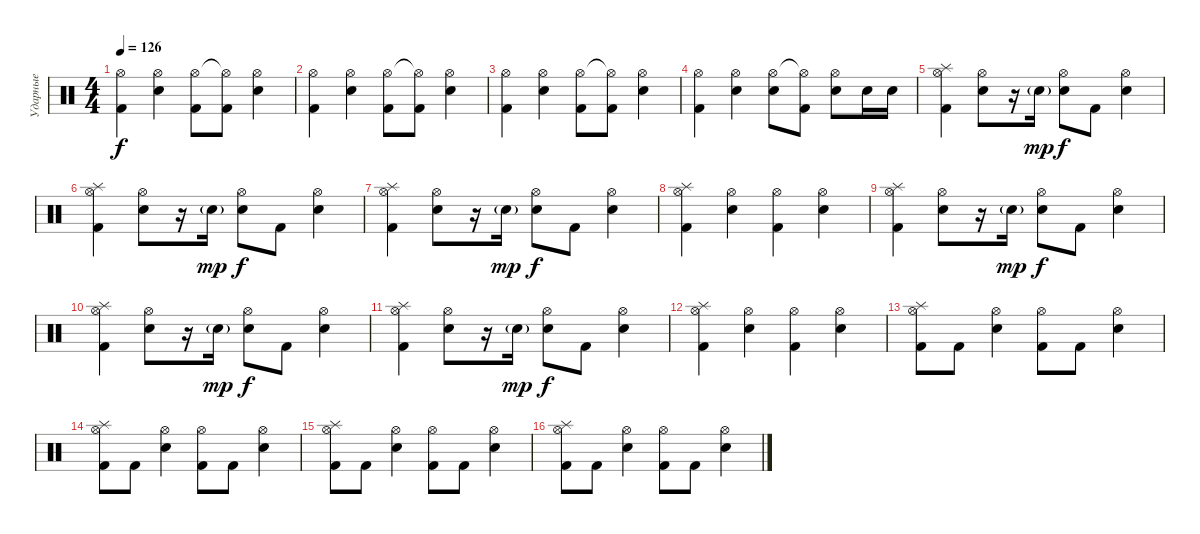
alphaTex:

\track ("Ударные" "Ударные") {instrument percussion}
\staff {score}
\articulation defaults
\ts (4 4)
\tempo 126
\clef neutral
\ks c
("Kick (hit) 2" "Hi-Hat (open)").4{dy f} ("Electric Snare (hit)" "Hi-Hat (open)").4 ("Kick (hit) 2" "Hi-Hat (open)").8 ("Kick (hit) 2" "Hi-Hat (open)"{t}).8 ("Electric Snare (hit)" "Hi-Hat (open)").4 |
("Kick (hit) 2" "Hi-Hat (open)").4 ("Electric Snare (hit)" "Hi-Hat (open)").4 ("Kick (hit) 2" "Hi-Hat (open)").8 ("Kick (hit) 2" "Hi-Hat (open)"{t}).8 ("Electric Snare (hit)" "Hi-Hat (open)").4 |
("Kick (hit) 2" "Hi-Hat (open)").4 ("Electric Snare (hit)" "Hi-Hat (open)").4 ("Kick (hit) 2" "Hi-Hat (open)").8 ("Kick (hit) 2" "Hi-Hat (open)"{t}).8 ("Electric Snare (hit)" "Hi-Hat (open)").4 |
("Kick (hit) 2" "Hi-Hat (open)").4 ("Electric Snare (hit)" "Hi-Hat (open)").4 ("Electric Snare (hit)" "Hi-Hat (open)").8 ("Kick (hit) 2" "Hi-Hat (open)"{t}).8 ("Electric Snare (hit)" "Hi-Hat (open)").8 "Electric Snare (hit)".16 "Electric Snare (hit)".16 |
("Kick (hit) 2" "Hi-Hat (open)" "Splash (hit)").4 ("Electric Snare (hit)" "Hi-Hat (open)").8 r.16 "Electric Snare (hit)"{g}.16{dy mp} ("Electric Snare (hit)" "Hi-Hat (open)").8{dy f} "Kick (hit) 2".8 ("Electric Snare (hit)" "Hi-Hat (open)").4 |
("Kick (hit) 2" "Hi-Hat (open)" "Splash (hit)").4 ("Electric Snare (hit)" "Hi-Hat (open)").8 r.16 "Electric Snare (hit)"{g}.16{dy mp} ("Electric Snare (hit)" "Hi-Hat (open)").8{dy f} "Kick (hit) 2".8 ("Electric Snare (hit)" "Hi-Hat (open)").4 |
("Kick (hit) 2" "Hi-Hat (open)" "Splash (hit)").4 ("Electric Snare (hit)" "Hi-Hat (open)").8 r.16 "Electric Snare (hit)"{g}.16{dy mp} ("Electric Snare (hit)" "Hi-Hat (open)").8{dy f} "Kick (hit) 2".8 ("Electric Snare (hit)" "Hi-Hat (open)").4 |
("Kick (hit) 2" "Hi-Hat (open)" "Splash (hit)").4 ("Electric Snare (hit)" "Hi-Hat (open)").4 ("Kick (hit) 2" "Hi-Hat (open)").4 ("Electric Snare (hit)" "Hi-Hat (open)").4 |
("Kick (hit) 2" "Hi-Hat (open)" "Splash (hit)").4 ("Electric Snare (hit)" "Hi-Hat (open)").8 r.16 "Electric Snare (hit)"{g}.16{dy mp} ("Electric Snare (hit)" "Hi-Hat (open)").8{dy f} "Kick (hit) 2".8 ("Electric Snare (hit)" "Hi-Hat (open)").4 |
("Kick (hit) 2" "Hi-Hat (open)" "Splash (hit)").4 ("Electric Snare (hit)" "Hi-Hat (open)").8 r.16 "Electric Snare (hit)"{g}.16{dy mp} ("Electric Snare (hit)" "Hi-Hat (open)").8{dy f} "Kick (hit) 2".8 ("Electric Snare (hit)" "Hi-Hat (open)").4 |
("Kick (hit) 2" "Hi-Hat (open)" "Splash (hit)").4 ("Electric Snare (hit)" "Hi-Hat (open)").8 r.16 "Electric Snare (hit)"{g}.16{dy mp} ("Electric Snare (hit)" "Hi-Hat (open)").8{dy f} "Kick (hit) 2".8 ("Electric Snare (hit)" "Hi-Hat (open)").4 |
("Kick (hit) 2" "Hi-Hat (open)" "Splash (hit)").4 ("Electric Snare (hit)" "Hi-Hat (open)").4 ("Kick (hit) 2" "Hi-Hat (open)").4 ("Electric Snare (hit)" "Hi-Hat (open)").4 |
("Kick (hit) 2" "Hi-Hat (open)" "Splash (hit)").8 "Kick (hit) 2".8 ("Electric Snare (hit)" "Hi-Hat (open)").4 ("Kick (hit) 2" "Hi-Hat (open)").8 "Kick (hit) 2".8 ("Electric Snare (hit)" "Hi-Hat (open)").4 |
("Kick (hit) 2" "Hi-Hat (open)" "Splash (hit)").8 "Kick (hit) 2".8 ("Electric Snare (hit)" "Hi-Hat (open)").4 ("Kick (hit) 2" "Hi-Hat (open)").8 "Kick (hit) 2".8 ("Electric Snare (hit)" "Hi-Hat (open)").4 |
("Kick (hit) 2" "Hi-Hat (open)" "Splash (hit)").8 "Kick (hit) 2".8 ("Electric Snare (hit)" "Hi-Hat (open)").4 ("Kick (hit) 2" "Hi-Hat (open)").8 "Kick (hit) 2".8 ("Electric Snare (hit)" "Hi-Hat (open)").4 |
("Kick (hit) 2" "Hi-Hat (open)" "Splash (hit)").8 "Kick (hit) 2".8 ("Electric Snare (hit)" "Hi-Hat (open)").4 ("Kick (hit) 2" "Hi-Hat (open)").8 "Kick (hit) 2".8 ("Electric Snare (hit)" "Hi-Hat (open)").4
